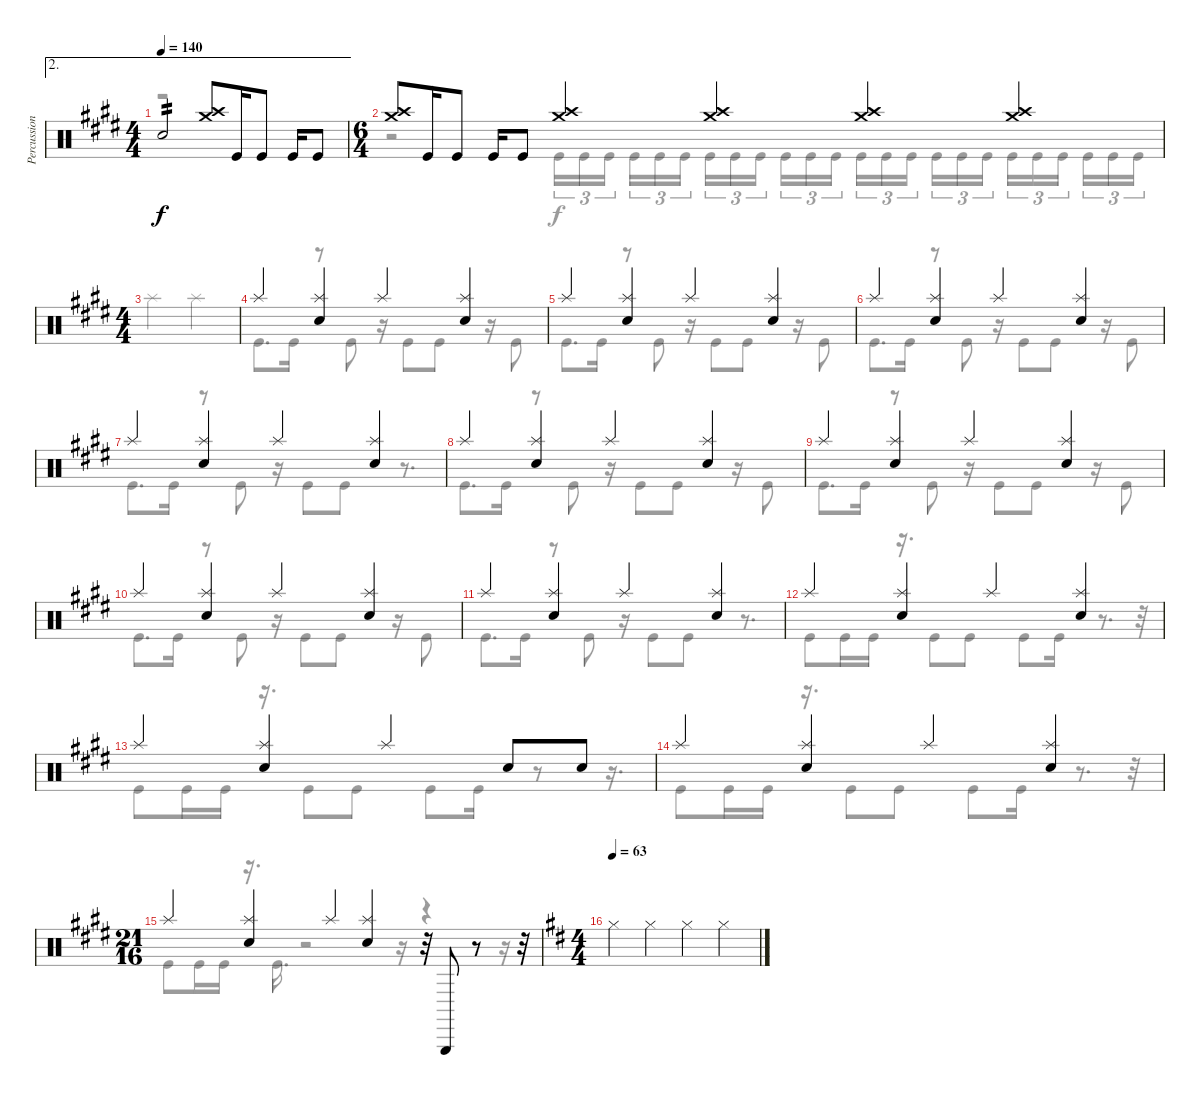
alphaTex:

\track ("Percussion" "Percussion") {instrument percussion}
\staff {score}
\articulation defaults
\voice
\ae 2
\ts (4 4)
\tempo 140
\clef neutral
\ks c#minor "Electric Snare (hit)".2{tp 2 dy f}
("Crash medium (hit)" "Crash high (hit)").8 "Kick (hit)".16 "Kick (hit)".8 "Kick (hit)".16 "Kick (hit)".8 |
\ts (6 4)
("Crash medium (hit)" "Crash high (hit)").8 "Kick (hit)".16 "Kick (hit)".8 "Kick (hit)".16 "Kick (hit)".8 ("Crash medium (hit)" "Crash high (hit)").4 ("Crash medium (hit)" "Crash high (hit)").4 ("Crash medium (hit)" "Crash high (hit)").4 ("Crash medium (hit)" "Crash high (hit)").4 |
\ts (4 4)
|
"Splash (hit)".4 ("Splash (hit)" "Snare (hit) 2").4 "Splash (hit)".4 ("Splash (hit)" "Snare (hit) 2").4 |
"Splash (hit)".4 ("Splash (hit)" "Snare (hit) 2").4 "Splash (hit)".4 ("Splash (hit)" "Snare (hit) 2").4 |
"Splash (hit)".4 ("Splash (hit)" "Snare (hit) 2").4 "Splash (hit)".4 ("Splash (hit)" "Snare (hit) 2").4 |
"Splash (hit)".4 ("Splash (hit)" "Snare (hit) 2").4 "Splash (hit)".4 ("Splash (hit)" "Snare (hit) 2").4 |
"Splash (hit)".4 ("Splash (hit)" "Snare (hit) 2").4 "Splash (hit)".4 ("Splash (hit)" "Snare (hit) 2").4 |
"Splash (hit)".4 ("Splash (hit)" "Snare (hit) 2").4 "Splash (hit)".4 ("Splash (hit)" "Snare (hit) 2").4 |
"Splash (hit)".4 ("Splash (hit)" "Snare (hit) 2").4 "Splash (hit)".4 ("Splash (hit)" "Snare (hit) 2").4 |
"Splash (hit)".4 ("Splash (hit)" "Snare (hit) 2").4 "Splash (hit)".4 ("Splash (hit)" "Snare (hit) 2").4 |
"Splash (hit)".4 ("Splash (hit)" "Snare (hit) 2").4 "Splash (hit)".4 ("Splash (hit)" "Snare (hit) 2").4 |
"Splash (hit)".4 ("Splash (hit)" "Snare (hit) 2").4 "Splash (hit)".4 "Electric Snare (hit)".8 "Electric Snare (hit)".8 |
"Splash (hit)".4 ("Splash (hit)" "Snare (hit) 2").4 "Splash (hit)".4 ("Splash (hit)" "Snare (hit) 2").4 |
\ts (21 16)
"Splash (hit)".4 ("Splash (hit)" "Snare (hit) 2").4 "Splash (hit)".4 ("Splash (hit)" "Snare (hit) 2").4 r.32 "Triangle (hit)".8 r.8 r.32 |
\ts (4 4)
\tempo 63
\ks d "Hi-Hat (closed)".4 "Hi-Hat (closed)".4 "Hi-Hat (closed)".4 "Hi-Hat (closed)".4
\voice
\clef neutral
\ottava regular
\simile none
\ks c#minor
r.1{dy f} |
r.2 "Kick (hit)".16{tu (3 2)} "Kick (hit)".16{tu (3 2)} "Kick (hit)".16{tu (3 2) beam splitsecondary} "Kick (hit)".16{tu (3 2)} "Kick (hit)".16{tu (3 2)} "Kick (hit)".16{tu (3 2)} "Kick (hit)".16{tu (3 2)} "Kick (hit)".16{tu (3 2)} "Kick (hit)".16{tu (3 2) beam splitsecondary} "Kick (hit)".16{tu (3 2)} "Kick (hit)".16{tu (3 2)} "Kick (hit)".16{tu (3 2) beam splitsecondary} "Kick (hit)".16{tu (3 2)} "Kick (hit)".16{tu (3 2)} "Kick (hit)".16{tu (3 2) beam splitsecondary} "Kick (hit)".16{tu (3 2)} "Kick (hit)".16{tu (3 2)} "Kick (hit)".16{tu (3 2) beam splitsecondary} "Kick (hit)".16{tu (3 2)} "Kick (hit)".16{tu (3 2)} "Kick (hit)".16{tu (3 2) beam splitsecondary} "Kick (hit)".16{tu (3 2)} "Kick (hit)".16{tu (3 2)} "Kick (hit)".16{tu (3 2)} |
"Splash (hit)".2 "Splash (hit)".2 |
"Kick (hit)".8{d} "Kick (hit)".16 r.8 "Kick (hit)".8 r.16 "Kick (hit)".8 "Kick (hit)".8 r.16 "Kick (hit)".8 |
"Kick (hit)".8{d} "Kick (hit)".16 r.8 "Kick (hit)".8 r.16 "Kick (hit)".8 "Kick (hit)".8 r.16 "Kick (hit)".8 |
"Kick (hit)".8{d} "Kick (hit)".16 r.8 "Kick (hit)".8 r.16 "Kick (hit)".8 "Kick (hit)".8 r.16 "Kick (hit)".8 |
"Kick (hit)".8{d} "Kick (hit)".16 r.8 "Kick (hit)".8 r.16 "Kick (hit)".8 "Kick (hit)".8 r.8{d} |
"Kick (hit)".8{d} "Kick (hit)".16 r.8 "Kick (hit)".8 r.16 "Kick (hit)".8 "Kick (hit)".8 r.16 "Kick (hit)".8 |
"Kick (hit)".8{d} "Kick (hit)".16 r.8 "Kick (hit)".8 r.16 "Kick (hit)".8 "Kick (hit)".8 r.16 "Kick (hit)".8 |
"Kick (hit)".8{d} "Kick (hit)".16 r.8 "Kick (hit)".8 r.16 "Kick (hit)".8 "Kick (hit)".8 r.16 "Kick (hit)".8 |
"Kick (hit)".8{d} "Kick (hit)".16 r.8 "Kick (hit)".8 r.16 "Kick (hit)".8 "Kick (hit)".8 r.8{d} |
"Kick (hit)".8 "Kick (hit)".16 "Kick (hit)".16 r.16{d} "Kick (hit)".8 "Kick (hit)".8 "Kick (hit)".8 "Kick (hit)".16 r.8{d} r.32 |
"Kick (hit)".8 "Kick (hit)".16 "Kick (hit)".16 r.16{d} "Kick (hit)".8 "Kick (hit)".8 "Kick (hit)".8 "Kick (hit)".16 r.8 r.16{d} |
"Kick (hit)".8 "Kick (hit)".16 "Kick (hit)".16 r.16{d} "Kick (hit)".8 "Kick (hit)".8 "Kick (hit)".8 "Kick (hit)".16 r.8{d} r.32 |
"Kick (hit)".8 "Kick (hit)".16 "Kick (hit)".16 r.16{d} "Kick (hit)".16{d} r.2 r.16 r.4 r.16 |
\ks d
